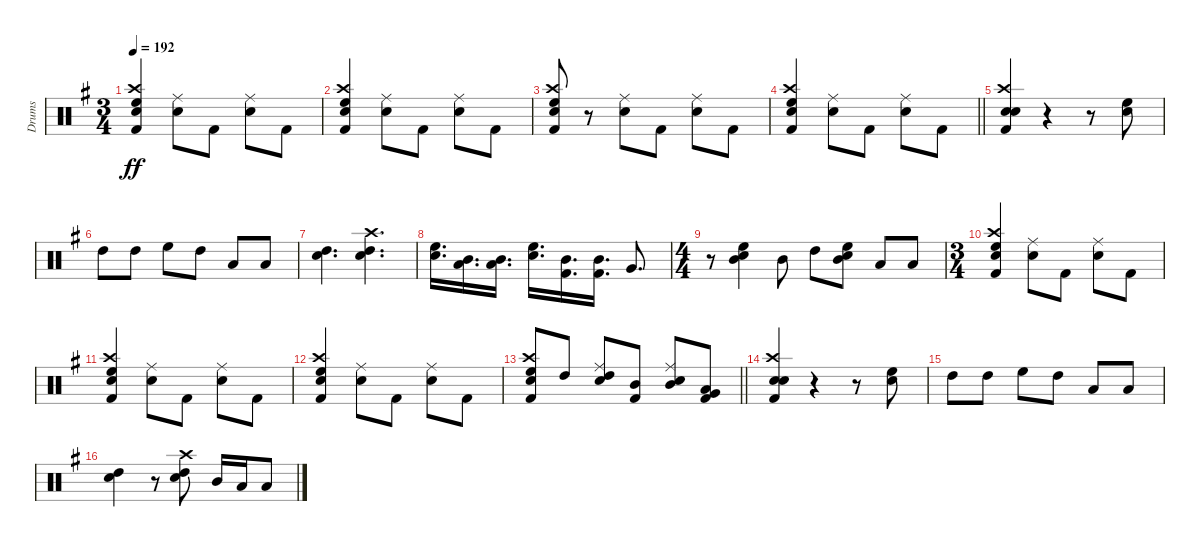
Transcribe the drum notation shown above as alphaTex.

\track ("Drums" "Drums") {instrument percussion}
\staff {score}
\articulation defaults
\ts (3 4)
\tempo 192
\clef neutral
\ks g
("Kick (hit) 2" "Crash high (hit)" "High Floor Tom (hit)" "Electric Snare (hit)").4{dy ff} ("Ride (middle)" "Electric Snare (hit)").8 "Kick (hit) 2".8 ("Ride (middle)" "Electric Snare (hit)").8 "Kick (hit) 2".8 |
("Kick (hit) 2" "Crash high (hit)" "High Floor Tom (hit)" "Electric Snare (hit)").4 ("Ride (middle)" "Electric Snare (hit)").8 "Kick (hit) 2".8 ("Ride (middle)" "Electric Snare (hit)").8 "Kick (hit) 2".8 |
("Kick (hit) 2" "Crash high (hit)" "High Floor Tom (hit)" "Electric Snare (hit)").8 r.8 ("Ride (middle)" "Electric Snare (hit)").8 "Kick (hit) 2".8 ("Ride (middle)" "Electric Snare (hit)").8 "Kick (hit) 2".8 |
\barLineRight lightlight
("Kick (hit) 2" "Crash high (hit)" "High Floor Tom (hit)" "Electric Snare (hit)").4 ("Ride (middle)" "Electric Snare (hit)").8 "Kick (hit) 2".8 ("Ride (middle)" "Electric Snare (hit)").8 "Kick (hit) 2".8 |
("Kick (hit) 2" "Snare (hit) 2" "Electric Snare (hit)" "Crash high (hit)").4 r.4 r.8 ("High Floor Tom (hit)" "Electric Snare (hit)").8 |
"High Tom (hit)".8 "High Tom (hit)".8 "High Floor Tom (hit)".8 "High Tom (hit)".8 "Low Tom (hit)".8 "Low Tom (hit)".8 |
("Electric Snare (hit)" "High Tom (hit)").4{d} ("Electric Snare (hit)" "High Tom (hit)" "Crash high (hit)").4{d} |
("High Floor Tom (hit)" "Electric Snare (hit)").16{d} ("Mid Tom (hit)" "Low Tom (hit)").16{d} ("Mid Tom (hit)" "Low Tom (hit)").16{d} ("High Floor Tom (hit)" "Electric Snare (hit)").16{d} ("Kick (hit) 2" "Mid Tom (hit)").16{d} ("Kick (hit) 2" "Mid Tom (hit)").16{d} "Very Low Tom (hit)".8{d} |
\ts (4 4)
r.8 ("Mid Tom (hit)" "High Floor Tom (hit)" "Electric Snare (hit)").4 "Mid Tom (hit)".8 "High Tom (hit)".8 ("Mid Tom (hit)" "High Floor Tom (hit)" "Electric Snare (hit)").8 "Low Tom (hit)".8 "Low Tom (hit)".8 |
\ts (3 4)
("Kick (hit) 2" "Crash high (hit)" "High Floor Tom (hit)" "Electric Snare (hit)").4 ("Ride (middle)" "Electric Snare (hit)").8 "Kick (hit) 2".8 ("Ride (middle)" "Electric Snare (hit)").8 "Kick (hit) 2".8 |
("Kick (hit) 2" "Crash high (hit)" "High Floor Tom (hit)" "Electric Snare (hit)").4 ("Ride (middle)" "Electric Snare (hit)").8 "Kick (hit) 2".8 ("Ride (middle)" "Electric Snare (hit)").8 "Kick (hit) 2".8 |
("Kick (hit) 2" "Crash high (hit)" "High Floor Tom (hit)" "Electric Snare (hit)").4 ("Ride (middle)" "Electric Snare (hit)").8 "Kick (hit) 2".8 ("Ride (middle)" "Electric Snare (hit)").8 "Kick (hit) 2".8 |
\barLineRight lightlight
("Kick (hit) 2" "Crash high (hit)" "High Floor Tom (hit)" "Electric Snare (hit)").8 "High Tom (hit)".8 ("High Tom (hit)" "Ride (middle)" "Electric Snare (hit)").8 ("Mid Tom (hit)" "Kick (hit) 2").8 ("Mid Tom (hit)" "Ride (middle)" "Electric Snare (hit)").8 ("Very Low Tom (hit)" "Low Tom (hit)" "Kick (hit) 2").8 |
("Kick (hit) 2" "Snare (hit) 2" "Electric Snare (hit)" "Crash high (hit)").4 r.4 r.8 ("High Floor Tom (hit)" "Electric Snare (hit)").8 |
"High Tom (hit)".8 "High Tom (hit)".8 "High Floor Tom (hit)".8 "High Tom (hit)".8 "Low Tom (hit)".8 "Low Tom (hit)".8 |
("Electric Snare (hit)" "High Tom (hit)").4 r.8 ("Electric Snare (hit)" "High Tom (hit)" "Crash high (hit)").8 "Mid Tom (hit)".16 "Low Tom (hit)".16 "Low Tom (hit)".8
